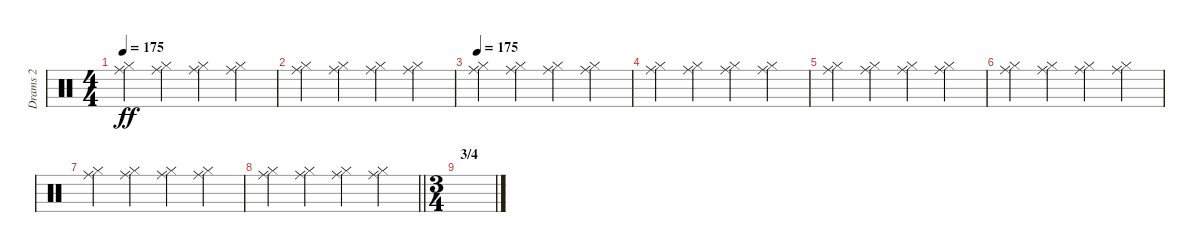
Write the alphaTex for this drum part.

\track ("Drams 2" "Drams 2") {instrument percussion}
\staff {score}
\articulation defaults
\ts (4 4)
\tempo 175
\clef neutral
\ks c
("Ride (middle)" "Hi-Hat (closed)").4{dy ff} ("Ride (middle)" "Hi-Hat (closed)").4 ("Ride (middle)" "Hi-Hat (closed)").4 ("Ride (middle)" "Hi-Hat (closed)").4 |
("Ride (middle)" "Hi-Hat (closed)").4 ("Ride (middle)" "Hi-Hat (closed)").4 ("Ride (middle)" "Hi-Hat (closed)").4 ("Ride (middle)" "Hi-Hat (closed)").4 |
\tempo 175
("Ride (middle)" "Hi-Hat (closed)").4 ("Ride (middle)" "Hi-Hat (closed)").4 ("Ride (middle)" "Hi-Hat (closed)").4 ("Ride (middle)" "Hi-Hat (closed)").4 |
("Ride (middle)" "Hi-Hat (closed)").4 ("Ride (middle)" "Hi-Hat (closed)").4 ("Ride (middle)" "Hi-Hat (closed)").4 ("Ride (middle)" "Hi-Hat (closed)").4 |
("Ride (middle)" "Hi-Hat (closed)").4 ("Ride (middle)" "Hi-Hat (closed)").4 ("Ride (middle)" "Hi-Hat (closed)").4 ("Ride (middle)" "Hi-Hat (closed)").4 |
("Ride (middle)" "Hi-Hat (closed)").4 ("Ride (middle)" "Hi-Hat (closed)").4 ("Ride (middle)" "Hi-Hat (closed)").4 ("Ride (middle)" "Hi-Hat (closed)").4 |
("Ride (middle)" "Hi-Hat (closed)").4 ("Ride (middle)" "Hi-Hat (closed)").4 ("Ride (middle)" "Hi-Hat (closed)").4 ("Ride (middle)" "Hi-Hat (closed)").4 |
\barLineRight lightlight
("Ride (middle)" "Hi-Hat (closed)").4 ("Ride (middle)" "Hi-Hat (closed)").4 ("Ride (middle)" "Hi-Hat (closed)").4 ("Ride (middle)" "Hi-Hat (closed)").4 |
\ts (3 4)
\section ("" "3/4")
